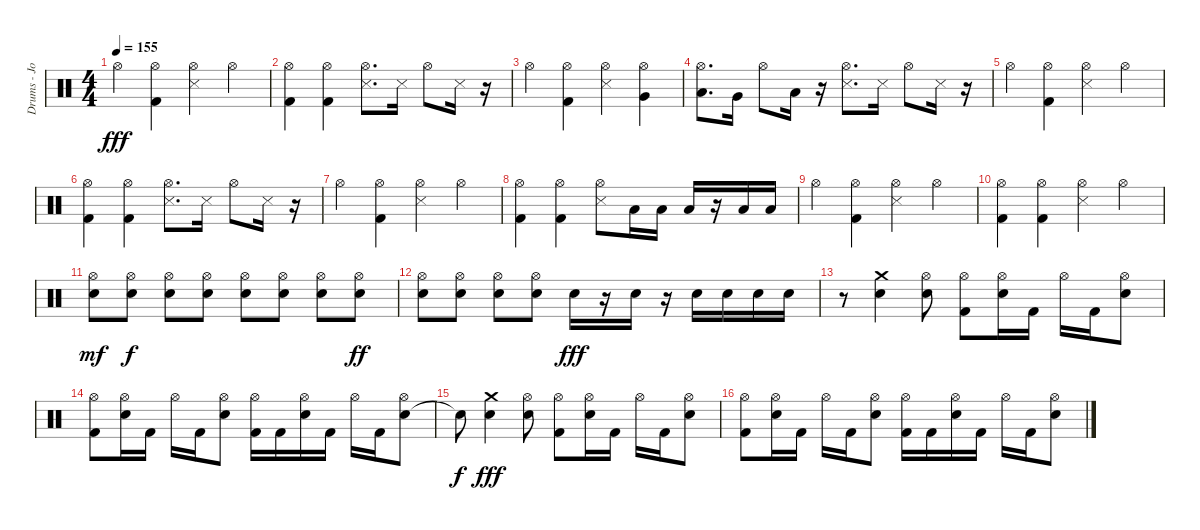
\track ("Drums - Jord" "Drums - Jo") {instrument percussion}
\staff {score}
\articulation defaults
\ts (4 4)
\tempo 155
\clef neutral
\ks c "Hi-Hat (open)".4{dy fff}
("Kick (hit) 2" "Hi-Hat (open)").4 ("Snare (side stick) 3" "Hi-Hat (open)").4 "Hi-Hat (open)".4 |
("Kick (hit) 2" "Hi-Hat (open)").4 ("Kick (hit) 2" "Hi-Hat (open)").4 ("Snare (side stick) 3" "Hi-Hat (open)").8{d} "Snare (side stick) 3".16 "Hi-Hat (open)".8 "Snare (side stick) 3".16 r.16 |
"Hi-Hat (open)".4 ("Kick (hit) 2" "Hi-Hat (open)").4 ("Snare (side stick) 3" "Hi-Hat (open)").4 ("Hi-Hat (open)" "Very Low Tom (hit)").4 |
("Low Tom (hit)" "Hi-Hat (open)").8{d} "Very Low Tom (hit)".16 "Hi-Hat (open)".8 "Low Floor Tom (hit)".16 r.16 ("Snare (side stick) 3" "Hi-Hat (open)").8{d} "Snare (side stick) 3".16 "Hi-Hat (open)".8 "Snare (side stick) 3".16 r.16 |
"Hi-Hat (open)".4 ("Kick (hit) 2" "Hi-Hat (open)").4 ("Snare (side stick) 3" "Hi-Hat (open)").4 "Hi-Hat (open)".4 |
("Kick (hit) 2" "Hi-Hat (open)").4 ("Kick (hit) 2" "Hi-Hat (open)").4 ("Snare (side stick) 3" "Hi-Hat (open)").8{d} "Snare (side stick) 3".16 "Hi-Hat (open)".8 "Snare (side stick) 3".16 r.16 |
"Hi-Hat (open)".4 ("Kick (hit) 2" "Hi-Hat (open)").4 ("Snare (side stick) 3" "Hi-Hat (open)").4 "Hi-Hat (open)".4 |
("Kick (hit) 2" "Hi-Hat (open)").4 ("Kick (hit) 2" "Hi-Hat (open)").4 ("Snare (side stick) 3" "Hi-Hat (open)").8 "Low Tom (hit)".16 "Low Tom (hit)".16 "Low Tom (hit)".16 r.16 "Low Tom (hit)".16 "Low Tom (hit)".16 |
"Hi-Hat (open)".4 ("Kick (hit) 2" "Hi-Hat (open)").4 ("Snare (side stick) 3" "Hi-Hat (open)").4 "Hi-Hat (open)".4 |
("Kick (hit) 2" "Hi-Hat (open)").4 ("Kick (hit) 2" "Hi-Hat (open)").4 ("Snare (side stick) 3" "Hi-Hat (open)").4 "Hi-Hat (open)".4 |
("Hi-Hat (open)" "Electric Snare (hit)").8{dy mf} ("Hi-Hat (open)" "Electric Snare (hit)").8{dy f} ("Hi-Hat (open)" "Electric Snare (hit)").8 ("Hi-Hat (open)" "Electric Snare (hit)").8 ("Hi-Hat (open)" "Electric Snare (hit)").8 ("Hi-Hat (open)" "Electric Snare (hit)").8 ("Hi-Hat (open)" "Electric Snare (hit)").8 ("Hi-Hat (open)" "Electric Snare (hit)").8{dy ff} |
("Hi-Hat (open)" "Electric Snare (hit)").8 ("Hi-Hat (open)" "Electric Snare (hit)").8 ("Hi-Hat (open)" "Electric Snare (hit)").8 ("Hi-Hat (open)" "Electric Snare (hit)").8 "Electric Snare (hit)".16{dy fff} r.16 "Electric Snare (hit)".16 r.16 "Electric Snare (hit)".16 "Electric Snare (hit)".16 "Electric Snare (hit)".16 "Electric Snare (hit)".16 |
r.8 ("Electric Snare (hit)" "Crash medium (hit)").4 ("Electric Snare (hit)" "Hi-Hat (open)").8 ("Kick (hit) 2" "Hi-Hat (open)").8 ("Electric Snare (hit)" "Hi-Hat (open)").16 "Kick (hit) 2".16 "Hi-Hat (open)".16 "Kick (hit) 2".16 ("Electric Snare (hit)" "Hi-Hat (open)").8 |
("Kick (hit) 2" "Hi-Hat (open)").8 ("Electric Snare (hit)" "Hi-Hat (open)").16 "Kick (hit) 2".16 "Hi-Hat (open)".16 "Kick (hit) 2".16 ("Electric Snare (hit)" "Hi-Hat (open)").8 ("Kick (hit) 2" "Hi-Hat (open)").16 "Kick (hit) 2".16 ("Electric Snare (hit)" "Hi-Hat (open)").16 "Kick (hit) 2".16 "Hi-Hat (open)".16 "Kick (hit) 2".16 ("Electric Snare (hit)" "Hi-Hat (open)").8 |
"Snare (hit)"{t}.8{dy f} ("Electric Snare (hit)" "Crash medium (hit)").4{dy fff} ("Electric Snare (hit)" "Hi-Hat (open)").8 ("Kick (hit) 2" "Hi-Hat (open)").8 ("Electric Snare (hit)" "Hi-Hat (open)").16 "Kick (hit) 2".16 "Hi-Hat (open)".16 "Kick (hit) 2".16 ("Electric Snare (hit)" "Hi-Hat (open)").8 |
("Kick (hit) 2" "Hi-Hat (open)").8 ("Electric Snare (hit)" "Hi-Hat (open)").16 "Kick (hit) 2".16 "Hi-Hat (open)".16 "Kick (hit) 2".16 ("Electric Snare (hit)" "Hi-Hat (open)").8 ("Kick (hit) 2" "Hi-Hat (open)").16 "Kick (hit) 2".16 ("Electric Snare (hit)" "Hi-Hat (open)").16 "Kick (hit) 2".16 "Hi-Hat (open)".16 "Kick (hit) 2".16 ("Electric Snare (hit)" "Hi-Hat (open)").8
